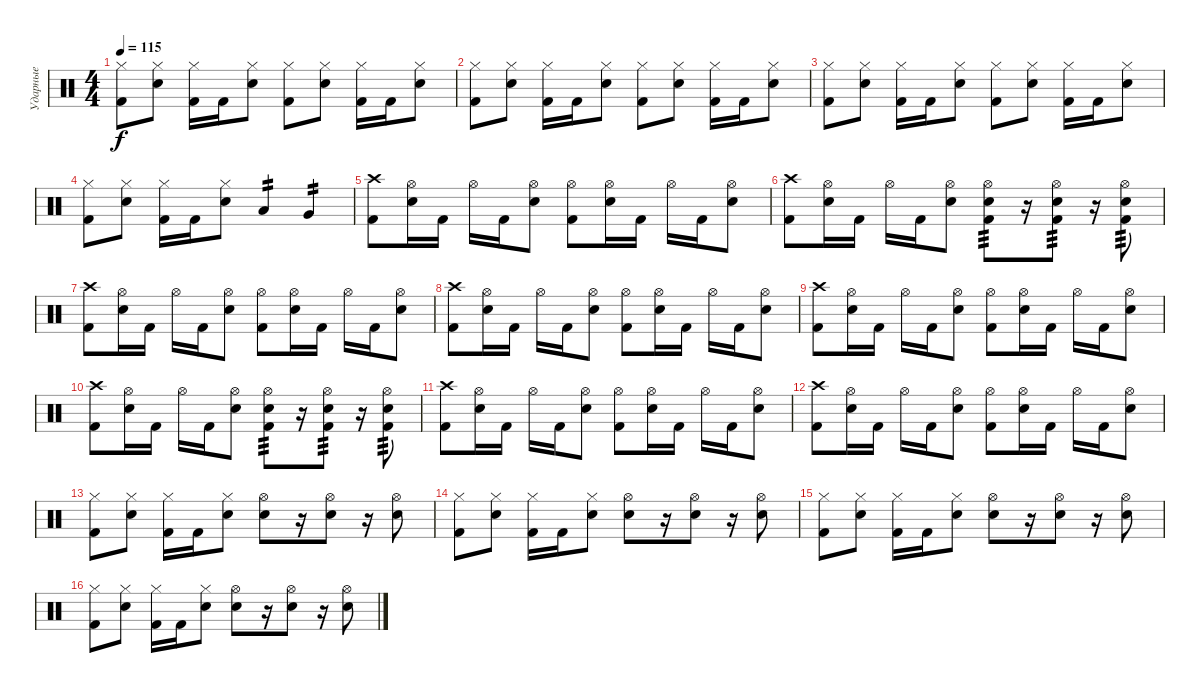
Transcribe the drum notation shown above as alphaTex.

\track ("Ударные" "Ударные") {instrument percussion}
\staff {score}
\articulation defaults
\ts (4 4)
\tempo 115
\clef neutral
\ks c
("Hi-Hat (closed)" "Kick (hit) 2").8{dy f} ("Hi-Hat (closed)" "Electric Snare (hit)").8 ("Hi-Hat (closed)" "Kick (hit) 2").16 "Kick (hit) 2".16 ("Hi-Hat (closed)" "Electric Snare (hit)").8 ("Hi-Hat (closed)" "Kick (hit) 2").8 ("Hi-Hat (closed)" "Electric Snare (hit)").8 ("Hi-Hat (closed)" "Kick (hit) 2").16 "Kick (hit) 2".16 ("Hi-Hat (closed)" "Electric Snare (hit)").8 |
("Hi-Hat (closed)" "Kick (hit) 2").8 ("Hi-Hat (closed)" "Electric Snare (hit)").8 ("Hi-Hat (closed)" "Kick (hit) 2").16 "Kick (hit) 2".16 ("Hi-Hat (closed)" "Electric Snare (hit)").8 ("Hi-Hat (closed)" "Kick (hit) 2").8 ("Hi-Hat (closed)" "Electric Snare (hit)").8 ("Hi-Hat (closed)" "Kick (hit) 2").16 "Kick (hit) 2".16 ("Hi-Hat (closed)" "Electric Snare (hit)").8 |
("Hi-Hat (closed)" "Kick (hit) 2").8 ("Hi-Hat (closed)" "Electric Snare (hit)").8 ("Hi-Hat (closed)" "Kick (hit) 2").16 "Kick (hit) 2".16 ("Hi-Hat (closed)" "Electric Snare (hit)").8 ("Hi-Hat (closed)" "Kick (hit) 2").8 ("Hi-Hat (closed)" "Electric Snare (hit)").8 ("Hi-Hat (closed)" "Kick (hit) 2").16 "Kick (hit) 2".16 ("Hi-Hat (closed)" "Electric Snare (hit)").8 |
("Hi-Hat (closed)" "Kick (hit) 2").8 ("Hi-Hat (closed)" "Electric Snare (hit)").8 ("Hi-Hat (closed)" "Kick (hit) 2").16 "Kick (hit) 2".16 ("Hi-Hat (closed)" "Electric Snare (hit)").8 "Low Floor Tom (hit)".4{tp 2} "Very Low Tom (hit)".4{tp 2} |
("Kick (hit) 2" "Crash high (hit)").8 ("Electric Snare (hit)" "Hi-Hat (open)").16 "Kick (hit) 2".16 "Hi-Hat (open)".16 "Kick (hit) 2".16 ("Electric Snare (hit)" "Hi-Hat (open)").8 ("Kick (hit) 2" "Hi-Hat (open)").8 ("Electric Snare (hit)" "Hi-Hat (open)").16 "Kick (hit) 2".16 "Hi-Hat (open)".16 "Kick (hit) 2".16 ("Electric Snare (hit)" "Hi-Hat (open)").8 |
("Kick (hit) 2" "Crash high (hit)").8 ("Electric Snare (hit)" "Hi-Hat (open)").16 "Kick (hit) 2".16 "Hi-Hat (open)".16 "Kick (hit) 2".16 ("Electric Snare (hit)" "Hi-Hat (open)").8 ("Hi-Hat (open)" "Electric Snare (hit)" "Kick (hit) 2").8{tp 3} r.16 ("Hi-Hat (open)" "Electric Snare (hit)" "Kick (hit) 2").8{tp 3} r.16 ("Hi-Hat (open)" "Electric Snare (hit)" "Kick (hit) 2").8{tp 3} |
("Kick (hit) 2" "Crash high (hit)").8 ("Electric Snare (hit)" "Hi-Hat (open)").16 "Kick (hit) 2".16 "Hi-Hat (open)".16 "Kick (hit) 2".16 ("Electric Snare (hit)" "Hi-Hat (open)").8 ("Kick (hit) 2" "Hi-Hat (open)").8 ("Electric Snare (hit)" "Hi-Hat (open)").16 "Kick (hit) 2".16 "Hi-Hat (open)".16 "Kick (hit) 2".16 ("Electric Snare (hit)" "Hi-Hat (open)").8 |
("Kick (hit) 2" "Crash high (hit)").8 ("Electric Snare (hit)" "Hi-Hat (open)").16 "Kick (hit) 2".16 "Hi-Hat (open)".16 "Kick (hit) 2".16 ("Electric Snare (hit)" "Hi-Hat (open)").8 ("Kick (hit) 2" "Hi-Hat (open)").8 ("Electric Snare (hit)" "Hi-Hat (open)").16 "Kick (hit) 2".16 "Hi-Hat (open)".16 "Kick (hit) 2".16 ("Electric Snare (hit)" "Hi-Hat (open)").8 |
("Kick (hit) 2" "Crash high (hit)").8 ("Electric Snare (hit)" "Hi-Hat (open)").16 "Kick (hit) 2".16 "Hi-Hat (open)".16 "Kick (hit) 2".16 ("Electric Snare (hit)" "Hi-Hat (open)").8 ("Kick (hit) 2" "Hi-Hat (open)").8 ("Electric Snare (hit)" "Hi-Hat (open)").16 "Kick (hit) 2".16 "Hi-Hat (open)".16 "Kick (hit) 2".16 ("Electric Snare (hit)" "Hi-Hat (open)").8 |
("Kick (hit) 2" "Crash high (hit)").8 ("Electric Snare (hit)" "Hi-Hat (open)").16 "Kick (hit) 2".16 "Hi-Hat (open)".16 "Kick (hit) 2".16 ("Electric Snare (hit)" "Hi-Hat (open)").8 ("Hi-Hat (open)" "Electric Snare (hit)" "Kick (hit) 2").8{tp 3} r.16 ("Hi-Hat (open)" "Electric Snare (hit)" "Kick (hit) 2").8{tp 3} r.16 ("Hi-Hat (open)" "Electric Snare (hit)" "Kick (hit) 2").8{tp 3} |
("Kick (hit) 2" "Crash high (hit)").8 ("Electric Snare (hit)" "Hi-Hat (open)").16 "Kick (hit) 2".16 "Hi-Hat (open)".16 "Kick (hit) 2".16 ("Electric Snare (hit)" "Hi-Hat (open)").8 ("Kick (hit) 2" "Hi-Hat (open)").8 ("Electric Snare (hit)" "Hi-Hat (open)").16 "Kick (hit) 2".16 "Hi-Hat (open)".16 "Kick (hit) 2".16 ("Electric Snare (hit)" "Hi-Hat (open)").8 |
("Kick (hit) 2" "Crash high (hit)").8 ("Electric Snare (hit)" "Hi-Hat (open)").16 "Kick (hit) 2".16 "Hi-Hat (open)".16 "Kick (hit) 2".16 ("Electric Snare (hit)" "Hi-Hat (open)").8 ("Kick (hit) 2" "Hi-Hat (open)").8 ("Electric Snare (hit)" "Hi-Hat (open)").16 "Kick (hit) 2".16 "Hi-Hat (open)".16 "Kick (hit) 2".16 ("Electric Snare (hit)" "Hi-Hat (open)").8 |
("Hi-Hat (closed)" "Kick (hit) 2").8 ("Hi-Hat (closed)" "Electric Snare (hit)").8 ("Hi-Hat (closed)" "Kick (hit) 2").16 "Kick (hit) 2".16 ("Hi-Hat (closed)" "Electric Snare (hit)").8 ("Hi-Hat (open)" "Electric Snare (hit)").8 r.16 ("Hi-Hat (open)" "Electric Snare (hit)").8 r.16 ("Hi-Hat (open)" "Electric Snare (hit)").8 |
("Hi-Hat (closed)" "Kick (hit) 2").8 ("Hi-Hat (closed)" "Electric Snare (hit)").8 ("Hi-Hat (closed)" "Kick (hit) 2").16 "Kick (hit) 2".16 ("Hi-Hat (closed)" "Electric Snare (hit)").8 ("Hi-Hat (open)" "Electric Snare (hit)").8 r.16 ("Hi-Hat (open)" "Electric Snare (hit)").8 r.16 ("Hi-Hat (open)" "Electric Snare (hit)").8 |
("Hi-Hat (closed)" "Kick (hit) 2").8 ("Hi-Hat (closed)" "Electric Snare (hit)").8 ("Hi-Hat (closed)" "Kick (hit) 2").16 "Kick (hit) 2".16 ("Hi-Hat (closed)" "Electric Snare (hit)").8 ("Hi-Hat (open)" "Electric Snare (hit)").8 r.16 ("Hi-Hat (open)" "Electric Snare (hit)").8 r.16 ("Hi-Hat (open)" "Electric Snare (hit)").8 |
("Hi-Hat (closed)" "Kick (hit) 2").8 ("Hi-Hat (closed)" "Electric Snare (hit)").8 ("Hi-Hat (closed)" "Kick (hit) 2").16 "Kick (hit) 2".16 ("Hi-Hat (closed)" "Electric Snare (hit)").8 ("Hi-Hat (open)" "Electric Snare (hit)").8 r.16 ("Hi-Hat (open)" "Electric Snare (hit)").8 r.16 ("Hi-Hat (open)" "Electric Snare (hit)").8
